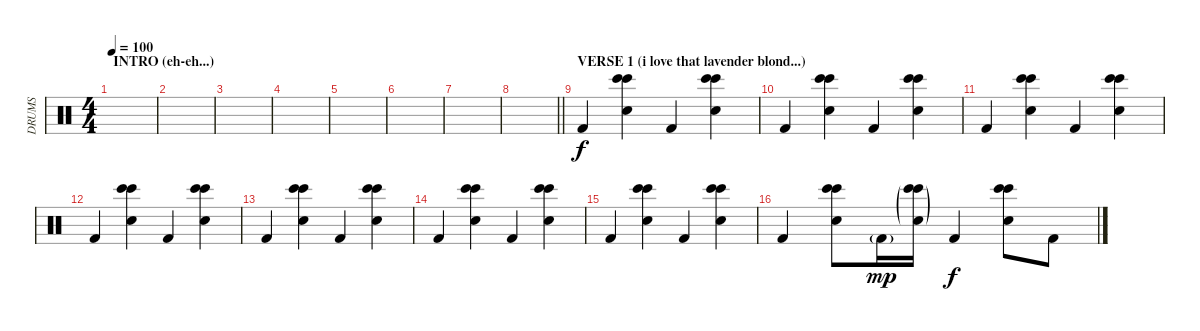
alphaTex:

\track ("DRUMS" "DRUMS") {instrument percussion}
\staff {score}
\articulation defaults
\ts (4 4)
\section ("" "INTRO (eh-eh...)")
\tempo 100
\clef neutral
\ks c
|
|
|
|
|
|
|
\barLineRight lightlight
|
\section ("" "VERSE 1 (i love that lavender blond...)")
"Kick (hit) 2".4 ("Bongo High (hit)" "Bongo High (hit)" "Snare (hit) 2").4 "Kick (hit) 2".4 ("Bongo High (hit)" "Bongo High (hit)" "Snare (hit) 2").4 |
"Kick (hit) 2".4 ("Bongo High (hit)" "Bongo High (hit)" "Snare (hit) 2").4 "Kick (hit) 2".4 ("Bongo High (hit)" "Bongo High (hit)" "Snare (hit) 2").4 |
"Kick (hit) 2".4 ("Bongo High (hit)" "Bongo High (hit)" "Snare (hit) 2").4 "Kick (hit) 2".4 ("Bongo High (hit)" "Bongo High (hit)" "Snare (hit) 2").4 |
"Kick (hit) 2".4 ("Bongo High (hit)" "Bongo High (hit)" "Snare (hit) 2").4 "Kick (hit) 2".4 ("Bongo High (hit)" "Bongo High (hit)" "Snare (hit) 2").4 |
"Kick (hit) 2".4 ("Bongo High (hit)" "Bongo High (hit)" "Snare (hit) 2").4 "Kick (hit) 2".4 ("Bongo High (hit)" "Bongo High (hit)" "Snare (hit) 2").4 |
"Kick (hit) 2".4 ("Bongo High (hit)" "Bongo High (hit)" "Snare (hit) 2").4 "Kick (hit) 2".4 ("Bongo High (hit)" "Bongo High (hit)" "Snare (hit) 2").4 |
"Kick (hit) 2".4 ("Bongo High (hit)" "Bongo High (hit)" "Snare (hit) 2").4 "Kick (hit) 2".4 ("Bongo High (hit)" "Bongo High (hit)" "Snare (hit) 2").4 |
"Kick (hit) 2".4 ("Bongo High (hit)" "Bongo High (hit)" "Snare (hit) 2").8 "Kick (hit) 2"{g}.16{dy mp} ("Bongo High (hit)"{g} "Bongo High (hit)"{g} "Snare (hit) 2"{g}).16 "Kick (hit) 2".4{dy f} ("Bongo High (hit)" "Bongo High (hit)" "Snare (hit) 2").8 "Kick (hit) 2".8
